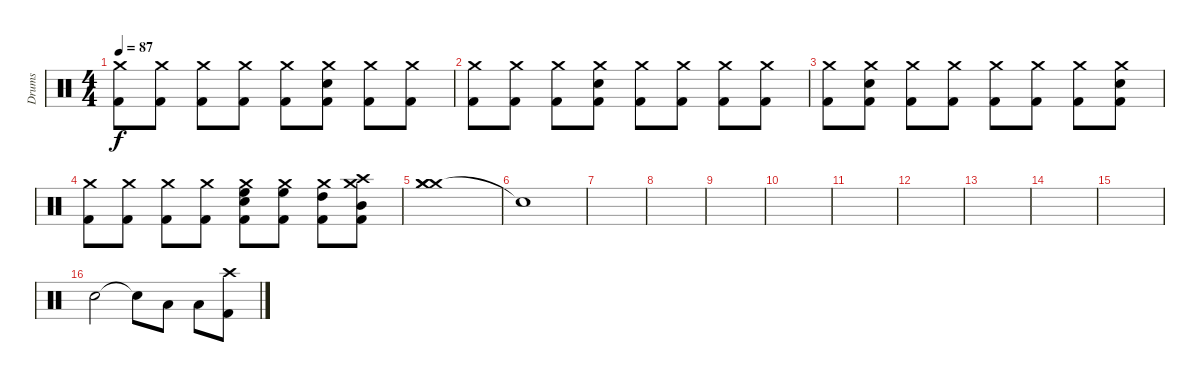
\track ("Drums" "Drums") {instrument percussion}
\staff {score}
\articulation defaults
\ts (4 4)
\tempo 87
\clef neutral
\ks c
("Crash medium (hit)" "Kick (hit) 2").8{dy f} ("Crash medium (hit)" "Kick (hit) 2").8 ("Crash medium (hit)" "Kick (hit) 2").8 ("Crash medium (hit)" "Kick (hit) 2").8 ("Crash medium (hit)" "Kick (hit) 2").8 ("Crash medium (hit)" "Kick (hit) 2" "Electric Snare (hit)").8 ("Crash medium (hit)" "Kick (hit) 2").8 ("Crash medium (hit)" "Kick (hit) 2").8 |
("Crash medium (hit)" "Kick (hit) 2").8 ("Crash medium (hit)" "Kick (hit) 2").8 ("Crash medium (hit)" "Kick (hit) 2").8 ("Crash medium (hit)" "Kick (hit) 2" "Electric Snare (hit)").8 ("Crash medium (hit)" "Kick (hit) 2").8 ("Crash medium (hit)" "Kick (hit) 2").8 ("Crash medium (hit)" "Kick (hit) 2").8 ("Crash medium (hit)" "Kick (hit) 2").8 |
("Crash medium (hit)" "Kick (hit) 2").8 ("Crash medium (hit)" "Kick (hit) 2" "Electric Snare (hit)").8 ("Crash medium (hit)" "Kick (hit) 2").8 ("Crash medium (hit)" "Kick (hit) 2").8 ("Crash medium (hit)" "Kick (hit) 2").8 ("Crash medium (hit)" "Kick (hit) 2").8 ("Crash medium (hit)" "Kick (hit) 2").8 ("Crash medium (hit)" "Kick (hit) 2" "Electric Snare (hit)").8 |
("Crash medium (hit)" "Kick (hit) 2").8 ("Crash medium (hit)" "Kick (hit) 2").8 ("Crash medium (hit)" "Kick (hit) 2").8 ("Crash medium (hit)" "Kick (hit) 2").8 ("Crash medium (hit)" "Kick (hit) 2" "Electric Snare (hit)" "High Floor Tom (hit)").8 ("Crash medium (hit)" "Kick (hit) 2" "High Floor Tom (hit)").8 ("Crash medium (hit)" "Kick (hit) 2" "High Tom (hit)").8 ("Crash medium (hit)" "Kick (hit) 2" "Crash high (hit)" "Mid Tom (hit)").8 |
("Crash medium (hit)" "Crash medium (hit)" "Crash medium (hit)").1 |
"Snare (hit)"{t}.1 |
|
|
|
|
|
|
|
|
|
"Snare (hit)".2 "Snare (hit)"{t}.8 "Low Floor Tom (hit)".8 "Low Tom (hit)".8 ("Crash high (hit)" "Kick (hit) 2").8
